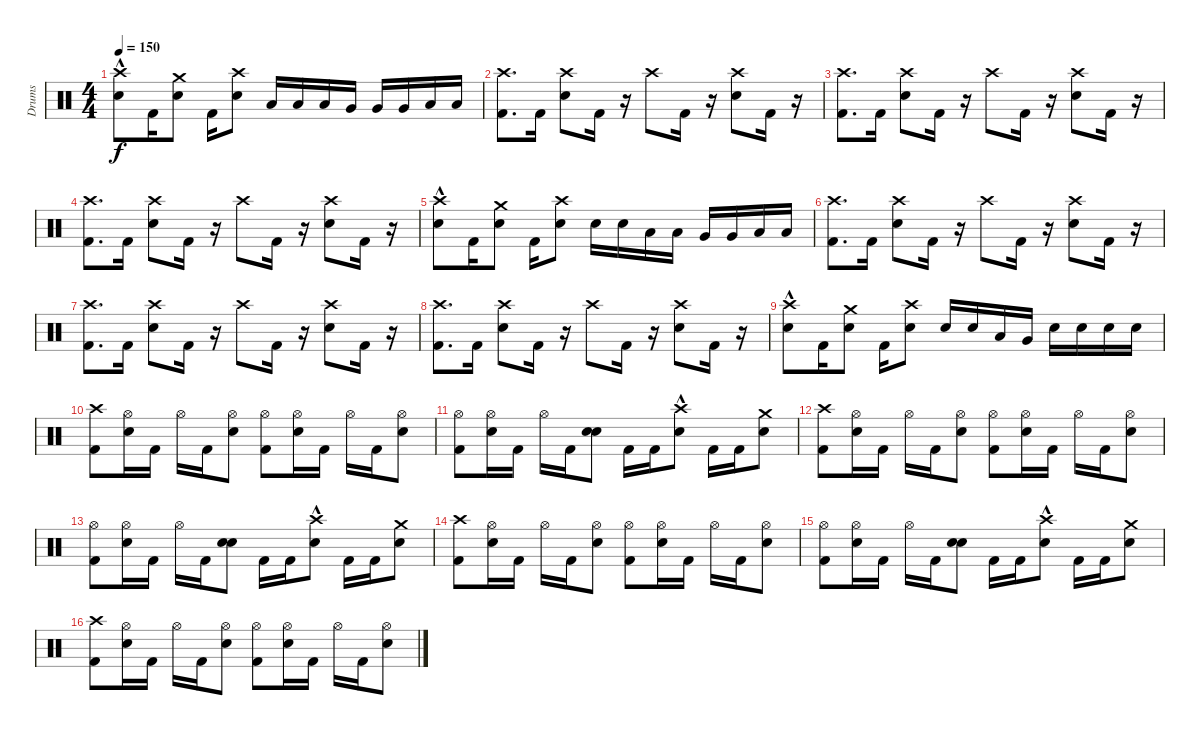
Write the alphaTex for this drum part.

\track ("Drums" "Drums") {instrument percussion}
\staff {score}
\articulation defaults
\ts (4 4)
\tempo 150
\clef neutral
\ks c
("Electric Snare (hit)" "Crash high (hit)"{hac}).8{dy f} "Kick (hit) 2".16 ("Electric Snare (hit)" "Crash medium (hit)").8 "Kick (hit) 2".16 ("Electric Snare (hit)" "Crash high (hit)").8 "Low Tom (hit)".16 "Low Tom (hit)".16 "Low Tom (hit)".16 "Very Low Tom (hit)".16 "Very Low Tom (hit)".16 "Very Low Tom (hit)".16 "Low Floor Tom (hit)".16 "Low Floor Tom (hit)".16 |
("Kick (hit) 2" "Crash high (hit)").8{d} "Kick (hit) 2".16 ("Electric Snare (hit)" "Crash high (hit)").8 "Kick (hit) 2".16 r.16 "Crash high (hit)".8 "Kick (hit) 2".16 r.16 ("Electric Snare (hit)" "Crash high (hit)").8 "Kick (hit) 2".16 r.16 |
("Kick (hit) 2" "Crash high (hit)").8{d} "Kick (hit) 2".16 ("Electric Snare (hit)" "Crash high (hit)").8 "Kick (hit) 2".16 r.16 "Crash high (hit)".8 "Kick (hit) 2".16 r.16 ("Electric Snare (hit)" "Crash high (hit)").8 "Kick (hit) 2".16 r.16 |
("Kick (hit) 2" "Crash high (hit)").8{d} "Kick (hit) 2".16 ("Electric Snare (hit)" "Crash high (hit)").8 "Kick (hit) 2".16 r.16 "Crash high (hit)".8 "Kick (hit) 2".16 r.16 ("Electric Snare (hit)" "Crash high (hit)").8 "Kick (hit) 2".16 r.16 |
("Electric Snare (hit)" "Crash high (hit)"{hac}).8 "Kick (hit) 2".16 ("Electric Snare (hit)" "Crash medium (hit)").8 "Kick (hit) 2".16 ("Electric Snare (hit)" "Crash high (hit)").8 "Electric Snare (hit)".16 "Electric Snare (hit)".16 "Low Tom (hit)".16 "Low Tom (hit)".16 "Very Low Tom (hit)".16 "Very Low Tom (hit)".16 "Low Floor Tom (hit)".16 "Low Floor Tom (hit)".16 |
("Kick (hit) 2" "Crash high (hit)").8{d} "Kick (hit) 2".16 ("Electric Snare (hit)" "Crash high (hit)").8 "Kick (hit) 2".16 r.16 "Crash high (hit)".8 "Kick (hit) 2".16 r.16 ("Electric Snare (hit)" "Crash high (hit)").8 "Kick (hit) 2".16 r.16 |
("Kick (hit) 2" "Crash high (hit)").8{d} "Kick (hit) 2".16 ("Electric Snare (hit)" "Crash high (hit)").8 "Kick (hit) 2".16 r.16 "Crash high (hit)".8 "Kick (hit) 2".16 r.16 ("Electric Snare (hit)" "Crash high (hit)").8 "Kick (hit) 2".16 r.16 |
("Kick (hit) 2" "Crash high (hit)").8{d} "Kick (hit) 2".16 ("Electric Snare (hit)" "Crash high (hit)").8 "Kick (hit) 2".16 r.16 "Crash high (hit)".8 "Kick (hit) 2".16 r.16 ("Electric Snare (hit)" "Crash high (hit)").8 "Kick (hit) 2".16 r.16 |
("Electric Snare (hit)" "Crash high (hit)"{hac}).8 "Kick (hit) 2".16 ("Electric Snare (hit)" "Crash medium (hit)").8 "Kick (hit) 2".16 ("Electric Snare (hit)" "Crash high (hit)").8 "Electric Snare (hit)".16 "Electric Snare (hit)".16 "Low Tom (hit)".16 "Very Low Tom (hit)".16 "Electric Snare (hit)".16 "Electric Snare (hit)".16 "Electric Snare (hit)".16 "Electric Snare (hit)".16 |
("Crash high (hit)" "Kick (hit) 2").8 ("Electric Snare (hit)" "Hi-Hat (open)").16 "Kick (hit) 2".16 "Hi-Hat (open)".16 "Kick (hit) 2".16 ("Electric Snare (hit)" "Hi-Hat (open)").8 ("Kick (hit) 2" "Hi-Hat (open)").8 ("Electric Snare (hit)" "Hi-Hat (open)").16 "Kick (hit) 2".16 "Hi-Hat (open)".16 "Kick (hit) 2".16 ("Electric Snare (hit)" "Hi-Hat (open)").8 |
("Kick (hit) 2" "Hi-Hat (open)").8 ("Electric Snare (hit)" "Hi-Hat (open)").16 "Kick (hit) 2".16 "Hi-Hat (open)".16 "Kick (hit) 2".16 ("Electric Snare (hit)" "Electric Snare (hit)").8 "Kick (hit) 2".16 "Kick (hit) 2".16 ("Crash high (hit)"{hac} "Electric Snare (hit)").8 "Kick (hit) 2".16 "Kick (hit) 2".16 ("Crash medium (hit)" "Electric Snare (hit)").8 |
("Crash high (hit)" "Kick (hit) 2").8 ("Electric Snare (hit)" "Hi-Hat (open)").16 "Kick (hit) 2".16 "Hi-Hat (open)".16 "Kick (hit) 2".16 ("Electric Snare (hit)" "Hi-Hat (open)").8 ("Kick (hit) 2" "Hi-Hat (open)").8 ("Electric Snare (hit)" "Hi-Hat (open)").16 "Kick (hit) 2".16 "Hi-Hat (open)".16 "Kick (hit) 2".16 ("Electric Snare (hit)" "Hi-Hat (open)").8 |
("Kick (hit) 2" "Hi-Hat (open)").8 ("Electric Snare (hit)" "Hi-Hat (open)").16 "Kick (hit) 2".16 "Hi-Hat (open)".16 "Kick (hit) 2".16 ("Electric Snare (hit)" "Electric Snare (hit)").8 "Kick (hit) 2".16 "Kick (hit) 2".16 ("Crash high (hit)"{hac} "Electric Snare (hit)").8 "Kick (hit) 2".16 "Kick (hit) 2".16 ("Crash medium (hit)" "Electric Snare (hit)").8 |
("Crash high (hit)" "Kick (hit) 2").8 ("Electric Snare (hit)" "Hi-Hat (open)").16 "Kick (hit) 2".16 "Hi-Hat (open)".16 "Kick (hit) 2".16 ("Electric Snare (hit)" "Hi-Hat (open)").8 ("Kick (hit) 2" "Hi-Hat (open)").8 ("Electric Snare (hit)" "Hi-Hat (open)").16 "Kick (hit) 2".16 "Hi-Hat (open)".16 "Kick (hit) 2".16 ("Electric Snare (hit)" "Hi-Hat (open)").8 |
("Kick (hit) 2" "Hi-Hat (open)").8 ("Electric Snare (hit)" "Hi-Hat (open)").16 "Kick (hit) 2".16 "Hi-Hat (open)".16 "Kick (hit) 2".16 ("Electric Snare (hit)" "Electric Snare (hit)").8 "Kick (hit) 2".16 "Kick (hit) 2".16 ("Crash high (hit)"{hac} "Electric Snare (hit)").8 "Kick (hit) 2".16 "Kick (hit) 2".16 ("Crash medium (hit)" "Electric Snare (hit)").8 |
("Crash high (hit)" "Kick (hit) 2").8 ("Electric Snare (hit)" "Hi-Hat (open)").16 "Kick (hit) 2".16 "Hi-Hat (open)".16 "Kick (hit) 2".16 ("Electric Snare (hit)" "Hi-Hat (open)").8 ("Kick (hit) 2" "Hi-Hat (open)").8 ("Electric Snare (hit)" "Hi-Hat (open)").16 "Kick (hit) 2".16 "Hi-Hat (open)".16 "Kick (hit) 2".16 ("Electric Snare (hit)" "Hi-Hat (open)").8
